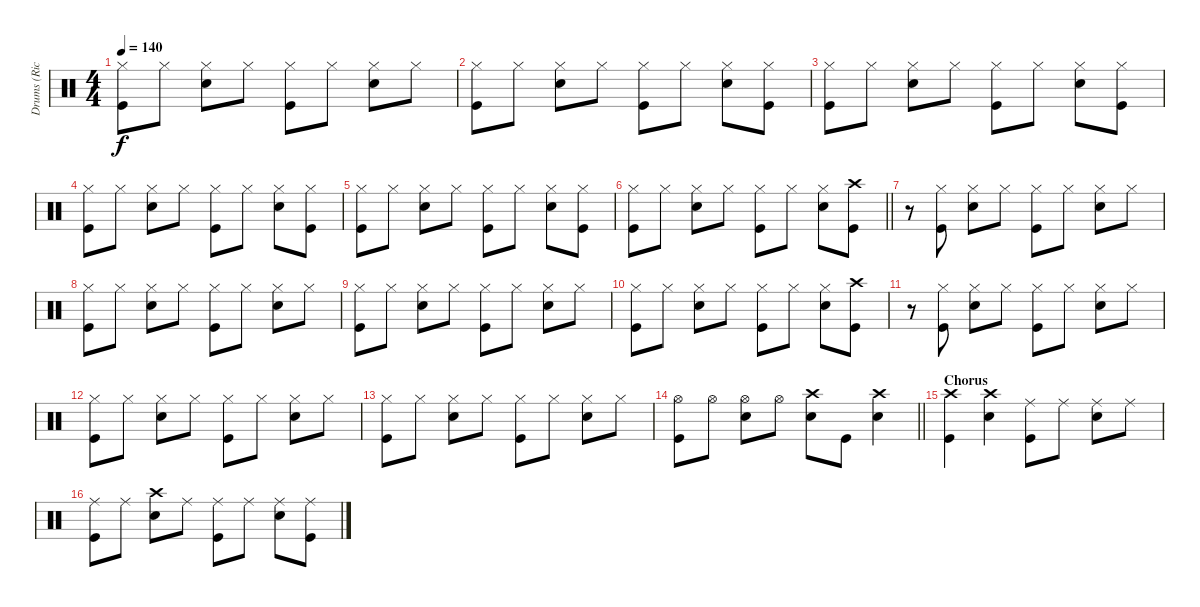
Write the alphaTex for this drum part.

\track ("Drums (Rick)" "Drums (Ric") {instrument percussion}
\staff {score}
\articulation defaults
\ts (4 4)
\tempo 140
\clef neutral
\ks aminor
("Hi-Hat (closed)" "Kick (hit)").8{dy f} "Hi-Hat (closed)".8 ("Hi-Hat (closed)" "Snare (hit) 2").8 "Hi-Hat (closed)".8 ("Hi-Hat (closed)" "Kick (hit)").8 "Hi-Hat (closed)".8 ("Hi-Hat (closed)" "Snare (hit) 2").8 "Hi-Hat (closed)".8 |
("Hi-Hat (closed)" "Kick (hit)").8 "Hi-Hat (closed)".8 ("Hi-Hat (closed)" "Snare (hit) 2").8 "Hi-Hat (closed)".8 ("Hi-Hat (closed)" "Kick (hit)").8 "Hi-Hat (closed)".8 ("Hi-Hat (closed)" "Snare (hit) 2").8 ("Hi-Hat (closed)" "Kick (hit)").8 |
("Hi-Hat (closed)" "Kick (hit)").8 "Hi-Hat (closed)".8 ("Hi-Hat (closed)" "Snare (hit) 2").8 "Hi-Hat (closed)".8 ("Hi-Hat (closed)" "Kick (hit)").8 "Hi-Hat (closed)".8 ("Hi-Hat (closed)" "Snare (hit) 2").8 ("Hi-Hat (closed)" "Kick (hit)").8 |
("Hi-Hat (closed)" "Kick (hit)").8 "Hi-Hat (closed)".8 ("Hi-Hat (closed)" "Snare (hit) 2").8 "Hi-Hat (closed)".8 ("Hi-Hat (closed)" "Kick (hit)").8 "Hi-Hat (closed)".8 ("Hi-Hat (closed)" "Snare (hit) 2").8 ("Hi-Hat (closed)" "Kick (hit)").8 |
("Hi-Hat (closed)" "Kick (hit)").8 "Hi-Hat (closed)".8 ("Hi-Hat (closed)" "Snare (hit) 2").8 "Hi-Hat (closed)".8 ("Hi-Hat (closed)" "Kick (hit)").8 "Hi-Hat (closed)".8 ("Hi-Hat (closed)" "Snare (hit) 2").8 ("Hi-Hat (closed)" "Kick (hit)").8 |
\barLineRight lightlight
("Hi-Hat (closed)" "Kick (hit)").8 "Hi-Hat (closed)".8 ("Hi-Hat (closed)" "Snare (hit) 2").8 "Hi-Hat (closed)".8 ("Hi-Hat (closed)" "Kick (hit)").8 "Hi-Hat (closed)".8 ("Hi-Hat (closed)" "Snare (hit) 2").8 ("Crash high (hit)" "Kick (hit)").8 |
r.8 ("Hi-Hat (closed)" "Kick (hit)").8 ("Hi-Hat (closed)" "Snare (hit) 2").8 "Hi-Hat (closed)".8 ("Hi-Hat (closed)" "Kick (hit)").8 "Hi-Hat (closed)".8 ("Hi-Hat (closed)" "Snare (hit) 2").8 "Hi-Hat (closed)".8 |
("Hi-Hat (closed)" "Kick (hit)").8 "Hi-Hat (closed)".8 ("Hi-Hat (closed)" "Snare (hit) 2").8 "Hi-Hat (closed)".8 ("Hi-Hat (closed)" "Kick (hit)").8 "Hi-Hat (closed)".8 ("Hi-Hat (closed)" "Snare (hit) 2").8 "Hi-Hat (closed)".8 |
("Hi-Hat (closed)" "Kick (hit)").8 "Hi-Hat (closed)".8 ("Hi-Hat (closed)" "Snare (hit) 2").8 "Hi-Hat (closed)".8 ("Hi-Hat (closed)" "Kick (hit)").8 "Hi-Hat (closed)".8 ("Hi-Hat (closed)" "Snare (hit) 2").8 "Hi-Hat (closed)".8 |
("Hi-Hat (closed)" "Kick (hit)").8 "Hi-Hat (closed)".8 ("Hi-Hat (closed)" "Snare (hit) 2").8 "Hi-Hat (closed)".8 ("Hi-Hat (closed)" "Kick (hit)").8 "Hi-Hat (closed)".8 ("Hi-Hat (closed)" "Snare (hit) 2").8 ("Crash high (hit)" "Kick (hit)").8 |
r.8 ("Hi-Hat (closed)" "Kick (hit)").8 ("Hi-Hat (closed)" "Snare (hit) 2").8 "Hi-Hat (closed)".8 ("Hi-Hat (closed)" "Kick (hit)").8 "Hi-Hat (closed)".8 ("Hi-Hat (closed)" "Snare (hit) 2").8 "Hi-Hat (closed)".8 |
("Hi-Hat (closed)" "Kick (hit)").8 "Hi-Hat (closed)".8 ("Hi-Hat (closed)" "Snare (hit) 2").8 "Hi-Hat (closed)".8 ("Hi-Hat (closed)" "Kick (hit)").8 "Hi-Hat (closed)".8 ("Hi-Hat (closed)" "Snare (hit) 2").8 "Hi-Hat (closed)".8 |
("Hi-Hat (closed)" "Kick (hit)").8 "Hi-Hat (closed)".8 ("Hi-Hat (closed)" "Snare (hit) 2").8 "Hi-Hat (closed)".8 ("Hi-Hat (closed)" "Kick (hit)").8 "Hi-Hat (closed)".8 ("Hi-Hat (closed)" "Snare (hit) 2").8 "Hi-Hat (closed)".8 |
\barLineRight lightlight
("Hi-Hat (open)" "Kick (hit)").8 "Hi-Hat (open)".8 ("Hi-Hat (open)" "Snare (hit) 2").8 "Hi-Hat (open)".8 ("Crash high (hit)" "Snare (hit) 2").8 "Kick (hit)".8 ("Crash high (hit)" "Snare (hit) 2").4 |
\section ("" "Chorus")
("Crash high (hit)" "Kick (hit)").4 ("Crash high (hit)" "Snare (hit) 2").4 ("Ride (middle)" "Kick (hit)").8 "Ride (middle)".8 ("Ride (middle)" "Snare (hit) 2").8 "Ride (middle)".8 |
("Ride (middle)" "Kick (hit)").8 "Ride (middle)".8 ("Crash high (hit)" "Snare (hit) 2").8 "Ride (middle)".8 ("Ride (middle)" "Kick (hit)").8 "Ride (middle)".8 ("Ride (middle)" "Snare (hit) 2").8 ("Ride (middle)" "Kick (hit)").8
